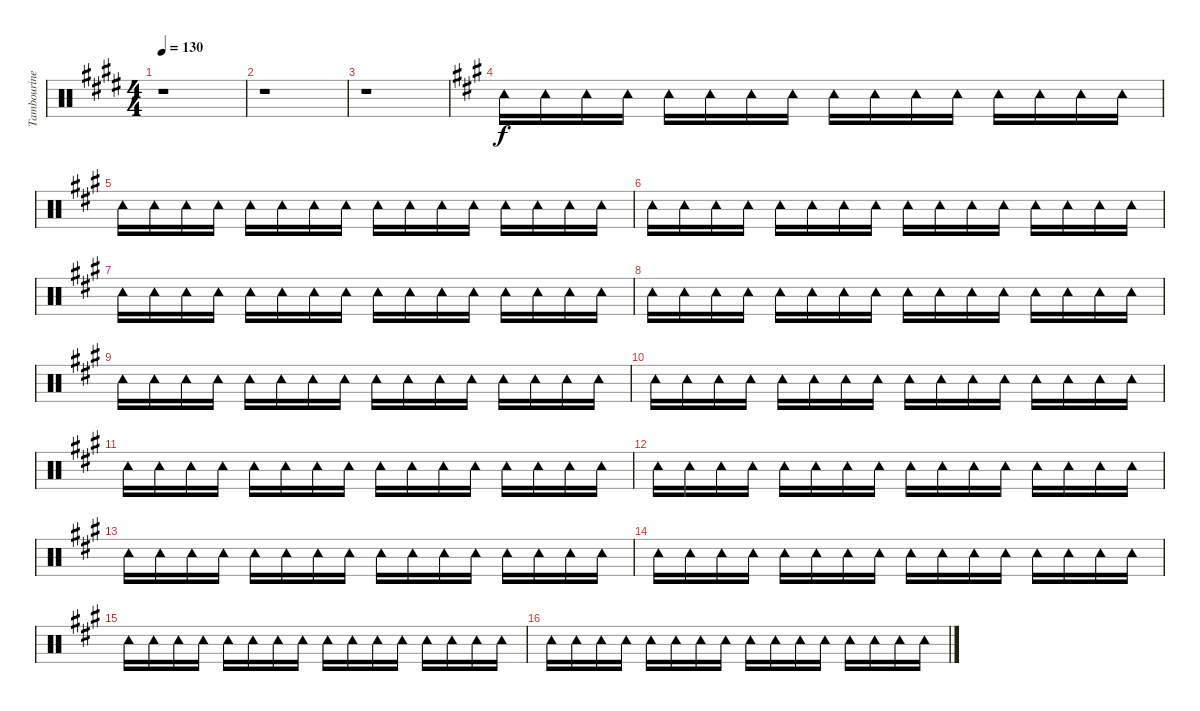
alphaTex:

\track ("Tambourine" "Tambourine") {instrument percussion}
\staff {score}
\articulation defaults
\ts (4 4)
\tempo 130
\clef neutral
\ks e
r.1{dy f} |
\ks c#minor
r.1 |
\ks e
r.1 |
\ks a "Tambourine (hit)".16 "Tambourine (hit)".16 "Tambourine (hit)".16 "Tambourine (hit)".16 "Tambourine (hit)".16 "Tambourine (hit)".16 "Tambourine (hit)".16 "Tambourine (hit)".16 "Tambourine (hit)".16 "Tambourine (hit)".16 "Tambourine (hit)".16 "Tambourine (hit)".16 "Tambourine (hit)".16 "Tambourine (hit)".16 "Tambourine (hit)".16 "Tambourine (hit)".16
|
"Tambourine (hit)".16 "Tambourine (hit)".16 "Tambourine (hit)".16 "Tambourine (hit)".16 "Tambourine (hit)".16 "Tambourine (hit)".16 "Tambourine (hit)".16 "Tambourine (hit)".16 "Tambourine (hit)".16 "Tambourine (hit)".16 "Tambourine (hit)".16 "Tambourine (hit)".16 "Tambourine (hit)".16 "Tambourine (hit)".16 "Tambourine (hit)".16 "Tambourine (hit)".16 |
"Tambourine (hit)".16 "Tambourine (hit)".16 "Tambourine (hit)".16 "Tambourine (hit)".16 "Tambourine (hit)".16 "Tambourine (hit)".16 "Tambourine (hit)".16 "Tambourine (hit)".16 "Tambourine (hit)".16 "Tambourine (hit)".16 "Tambourine (hit)".16 "Tambourine (hit)".16 "Tambourine (hit)".16 "Tambourine (hit)".16 "Tambourine (hit)".16 "Tambourine (hit)".16 |
"Tambourine (hit)".16 "Tambourine (hit)".16 "Tambourine (hit)".16 "Tambourine (hit)".16 "Tambourine (hit)".16 "Tambourine (hit)".16 "Tambourine (hit)".16 "Tambourine (hit)".16 "Tambourine (hit)".16 "Tambourine (hit)".16 "Tambourine (hit)".16 "Tambourine (hit)".16 "Tambourine (hit)".16 "Tambourine (hit)".16 "Tambourine (hit)".16 "Tambourine (hit)".16 |
"Tambourine (hit)".16 "Tambourine (hit)".16 "Tambourine (hit)".16 "Tambourine (hit)".16 "Tambourine (hit)".16 "Tambourine (hit)".16 "Tambourine (hit)".16 "Tambourine (hit)".16 "Tambourine (hit)".16 "Tambourine (hit)".16 "Tambourine (hit)".16 "Tambourine (hit)".16 "Tambourine (hit)".16 "Tambourine (hit)".16 "Tambourine (hit)".16 "Tambourine (hit)".16 |
"Tambourine (hit)".16 "Tambourine (hit)".16 "Tambourine (hit)".16 "Tambourine (hit)".16 "Tambourine (hit)".16 "Tambourine (hit)".16 "Tambourine (hit)".16 "Tambourine (hit)".16 "Tambourine (hit)".16 "Tambourine (hit)".16 "Tambourine (hit)".16 "Tambourine (hit)".16 "Tambourine (hit)".16 "Tambourine (hit)".16 "Tambourine (hit)".16 "Tambourine (hit)".16 |
"Tambourine (hit)".16 "Tambourine (hit)".16 "Tambourine (hit)".16 "Tambourine (hit)".16 "Tambourine (hit)".16 "Tambourine (hit)".16 "Tambourine (hit)".16 "Tambourine (hit)".16 "Tambourine (hit)".16 "Tambourine (hit)".16 "Tambourine (hit)".16 "Tambourine (hit)".16 "Tambourine (hit)".16 "Tambourine (hit)".16 "Tambourine (hit)".16 "Tambourine (hit)".16 |
"Tambourine (hit)".16 "Tambourine (hit)".16 "Tambourine (hit)".16 "Tambourine (hit)".16 "Tambourine (hit)".16 "Tambourine (hit)".16 "Tambourine (hit)".16 "Tambourine (hit)".16 "Tambourine (hit)".16 "Tambourine (hit)".16 "Tambourine (hit)".16 "Tambourine (hit)".16 "Tambourine (hit)".16 "Tambourine (hit)".16 "Tambourine (hit)".16 "Tambourine (hit)".16 |
"Tambourine (hit)".16 "Tambourine (hit)".16 "Tambourine (hit)".16 "Tambourine (hit)".16 "Tambourine (hit)".16 "Tambourine (hit)".16 "Tambourine (hit)".16 "Tambourine (hit)".16 "Tambourine (hit)".16 "Tambourine (hit)".16 "Tambourine (hit)".16 "Tambourine (hit)".16 "Tambourine (hit)".16 "Tambourine (hit)".16 "Tambourine (hit)".16 "Tambourine (hit)".16 |
"Tambourine (hit)".16 "Tambourine (hit)".16 "Tambourine (hit)".16 "Tambourine (hit)".16 "Tambourine (hit)".16 "Tambourine (hit)".16 "Tambourine (hit)".16 "Tambourine (hit)".16 "Tambourine (hit)".16 "Tambourine (hit)".16 "Tambourine (hit)".16 "Tambourine (hit)".16 "Tambourine (hit)".16 "Tambourine (hit)".16 "Tambourine (hit)".16 "Tambourine (hit)".16 |
"Tambourine (hit)".16 "Tambourine (hit)".16 "Tambourine (hit)".16 "Tambourine (hit)".16 "Tambourine (hit)".16 "Tambourine (hit)".16 "Tambourine (hit)".16 "Tambourine (hit)".16 "Tambourine (hit)".16 "Tambourine (hit)".16 "Tambourine (hit)".16 "Tambourine (hit)".16 "Tambourine (hit)".16 "Tambourine (hit)".16 "Tambourine (hit)".16 "Tambourine (hit)".16 |
"Tambourine (hit)".16 "Tambourine (hit)".16 "Tambourine (hit)".16 "Tambourine (hit)".16 "Tambourine (hit)".16 "Tambourine (hit)".16 "Tambourine (hit)".16 "Tambourine (hit)".16 "Tambourine (hit)".16 "Tambourine (hit)".16 "Tambourine (hit)".16 "Tambourine (hit)".16 "Tambourine (hit)".16 "Tambourine (hit)".16 "Tambourine (hit)".16 "Tambourine (hit)".16 |
"Tambourine (hit)".16 "Tambourine (hit)".16 "Tambourine (hit)".16 "Tambourine (hit)".16 "Tambourine (hit)".16 "Tambourine (hit)".16 "Tambourine (hit)".16 "Tambourine (hit)".16 "Tambourine (hit)".16 "Tambourine (hit)".16 "Tambourine (hit)".16 "Tambourine (hit)".16 "Tambourine (hit)".16 "Tambourine (hit)".16 "Tambourine (hit)".16 "Tambourine (hit)".16
